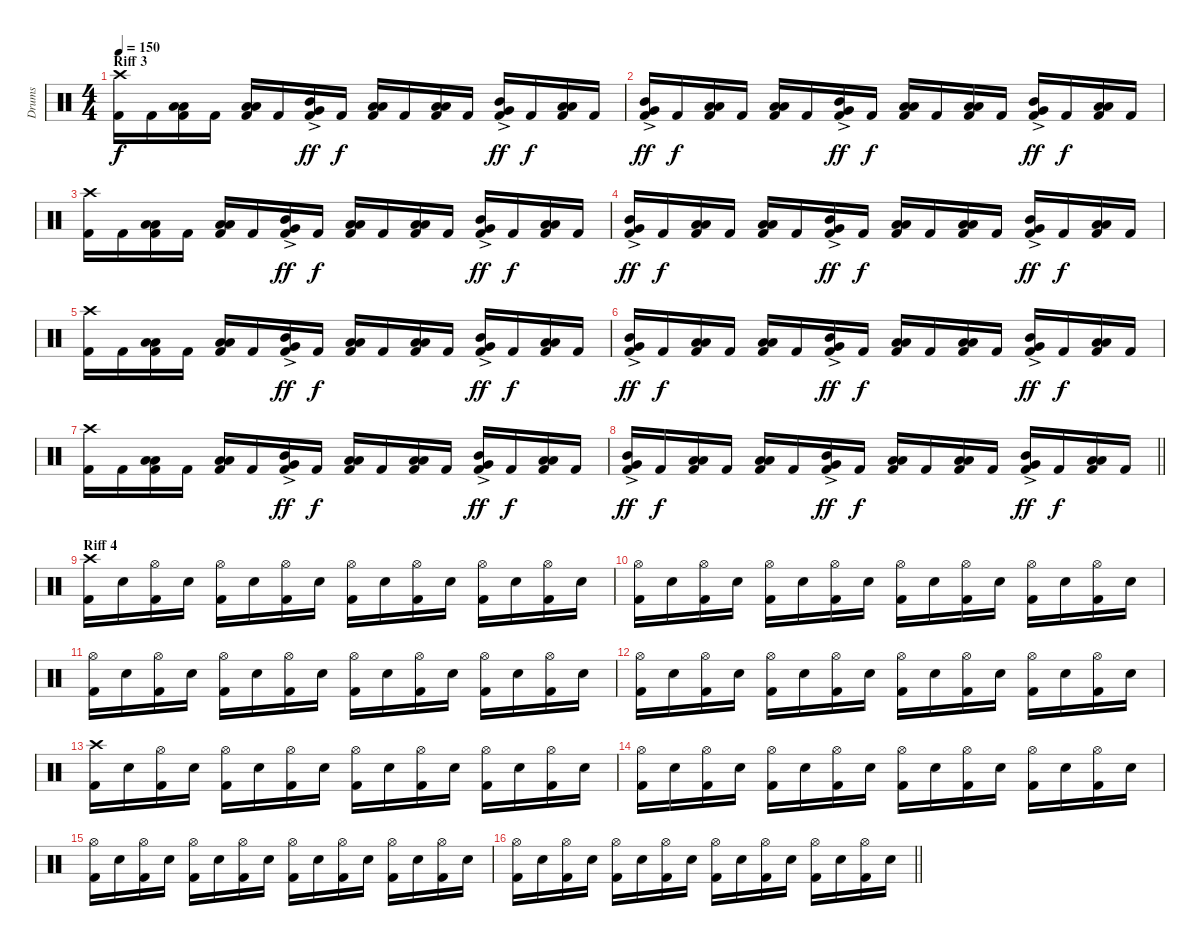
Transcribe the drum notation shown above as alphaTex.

\track ("Drums" "Drums") {instrument percussion}
\staff {score}
\articulation defaults
\ts (4 4)
\section ("" "Riff 3")
\tempo 150
\clef neutral
\ks c
("Crash high (hit)" "Kick (hit) 2").16{dy f} "Kick (hit) 2".16 ("Low Tom (hit)" "Low Floor Tom (hit)" "Kick (hit) 2").16 "Kick (hit) 2".16 ("Low Tom (hit)" "Low Floor Tom (hit)" "Kick (hit) 2").16 "Kick (hit) 2".16 ("Mid Tom (hit)"{ac} "Very Low Tom (hit)"{ac} "Kick (hit) 2").16{dy ff} "Kick (hit) 2".16{dy f} ("Low Tom (hit)" "Low Floor Tom (hit)" "Kick (hit) 2").16 "Kick (hit) 2".16 ("Low Tom (hit)" "Low Floor Tom (hit)" "Kick (hit) 2").16 "Kick (hit) 2".16 ("Mid Tom (hit)"{ac} "Very Low Tom (hit)"{ac} "Kick (hit) 2").16{dy ff} "Kick (hit) 2".16{dy f} ("Low Tom (hit)" "Low Floor Tom (hit)" "Kick (hit) 2").16 "Kick (hit) 2".16 |
("Mid Tom (hit)"{ac} "Very Low Tom (hit)"{ac} "Kick (hit) 2").16{dy ff} "Kick (hit) 2".16{dy f} ("Low Tom (hit)" "Low Floor Tom (hit)" "Kick (hit) 2").16 "Kick (hit) 2".16 ("Low Tom (hit)" "Low Floor Tom (hit)" "Kick (hit) 2").16 "Kick (hit) 2".16 ("Mid Tom (hit)"{ac} "Very Low Tom (hit)"{ac} "Kick (hit) 2").16{dy ff} "Kick (hit) 2".16{dy f} ("Low Tom (hit)" "Low Floor Tom (hit)" "Kick (hit) 2").16 "Kick (hit) 2".16 ("Low Tom (hit)" "Low Floor Tom (hit)" "Kick (hit) 2").16 "Kick (hit) 2".16 ("Mid Tom (hit)"{ac} "Very Low Tom (hit)"{ac} "Kick (hit) 2").16{dy ff} "Kick (hit) 2".16{dy f} ("Low Tom (hit)" "Low Floor Tom (hit)" "Kick (hit) 2").16 "Kick (hit) 2".16 |
("Crash high (hit)" "Kick (hit) 2").16 "Kick (hit) 2".16 ("Low Tom (hit)" "Low Floor Tom (hit)" "Kick (hit) 2").16 "Kick (hit) 2".16 ("Low Tom (hit)" "Low Floor Tom (hit)" "Kick (hit) 2").16 "Kick (hit) 2".16 ("Mid Tom (hit)"{ac} "Very Low Tom (hit)"{ac} "Kick (hit) 2").16{dy ff} "Kick (hit) 2".16{dy f} ("Low Tom (hit)" "Low Floor Tom (hit)" "Kick (hit) 2").16 "Kick (hit) 2".16 ("Low Tom (hit)" "Low Floor Tom (hit)" "Kick (hit) 2").16 "Kick (hit) 2".16 ("Mid Tom (hit)"{ac} "Very Low Tom (hit)"{ac} "Kick (hit) 2").16{dy ff} "Kick (hit) 2".16{dy f} ("Low Tom (hit)" "Low Floor Tom (hit)" "Kick (hit) 2").16 "Kick (hit) 2".16 |
("Mid Tom (hit)"{ac} "Very Low Tom (hit)"{ac} "Kick (hit) 2").16{dy ff} "Kick (hit) 2".16{dy f} ("Low Tom (hit)" "Low Floor Tom (hit)" "Kick (hit) 2").16 "Kick (hit) 2".16 ("Low Tom (hit)" "Low Floor Tom (hit)" "Kick (hit) 2").16 "Kick (hit) 2".16 ("Mid Tom (hit)"{ac} "Very Low Tom (hit)"{ac} "Kick (hit) 2").16{dy ff} "Kick (hit) 2".16{dy f} ("Low Tom (hit)" "Low Floor Tom (hit)" "Kick (hit) 2").16 "Kick (hit) 2".16 ("Low Tom (hit)" "Low Floor Tom (hit)" "Kick (hit) 2").16 "Kick (hit) 2".16 ("Mid Tom (hit)"{ac} "Very Low Tom (hit)"{ac} "Kick (hit) 2").16{dy ff} "Kick (hit) 2".16{dy f} ("Low Tom (hit)" "Low Floor Tom (hit)" "Kick (hit) 2").16 "Kick (hit) 2".16 |
("Crash high (hit)" "Kick (hit) 2").16 "Kick (hit) 2".16 ("Low Tom (hit)" "Low Floor Tom (hit)" "Kick (hit) 2").16 "Kick (hit) 2".16 ("Low Tom (hit)" "Low Floor Tom (hit)" "Kick (hit) 2").16 "Kick (hit) 2".16 ("Mid Tom (hit)"{ac} "Very Low Tom (hit)"{ac} "Kick (hit) 2").16{dy ff} "Kick (hit) 2".16{dy f} ("Low Tom (hit)" "Low Floor Tom (hit)" "Kick (hit) 2").16 "Kick (hit) 2".16 ("Low Tom (hit)" "Low Floor Tom (hit)" "Kick (hit) 2").16 "Kick (hit) 2".16 ("Mid Tom (hit)"{ac} "Very Low Tom (hit)"{ac} "Kick (hit) 2").16{dy ff} "Kick (hit) 2".16{dy f} ("Low Tom (hit)" "Low Floor Tom (hit)" "Kick (hit) 2").16 "Kick (hit) 2".16 |
("Mid Tom (hit)"{ac} "Very Low Tom (hit)"{ac} "Kick (hit) 2").16{dy ff} "Kick (hit) 2".16{dy f} ("Low Tom (hit)" "Low Floor Tom (hit)" "Kick (hit) 2").16 "Kick (hit) 2".16 ("Low Tom (hit)" "Low Floor Tom (hit)" "Kick (hit) 2").16 "Kick (hit) 2".16 ("Mid Tom (hit)"{ac} "Very Low Tom (hit)"{ac} "Kick (hit) 2").16{dy ff} "Kick (hit) 2".16{dy f} ("Low Tom (hit)" "Low Floor Tom (hit)" "Kick (hit) 2").16 "Kick (hit) 2".16 ("Low Tom (hit)" "Low Floor Tom (hit)" "Kick (hit) 2").16 "Kick (hit) 2".16 ("Mid Tom (hit)"{ac} "Very Low Tom (hit)"{ac} "Kick (hit) 2").16{dy ff} "Kick (hit) 2".16{dy f} ("Low Tom (hit)" "Low Floor Tom (hit)" "Kick (hit) 2").16 "Kick (hit) 2".16 |
("Crash high (hit)" "Kick (hit) 2").16 "Kick (hit) 2".16 ("Low Tom (hit)" "Low Floor Tom (hit)" "Kick (hit) 2").16 "Kick (hit) 2".16 ("Low Tom (hit)" "Low Floor Tom (hit)" "Kick (hit) 2").16 "Kick (hit) 2".16 ("Mid Tom (hit)"{ac} "Very Low Tom (hit)"{ac} "Kick (hit) 2").16{dy ff} "Kick (hit) 2".16{dy f} ("Low Tom (hit)" "Low Floor Tom (hit)" "Kick (hit) 2").16 "Kick (hit) 2".16 ("Low Tom (hit)" "Low Floor Tom (hit)" "Kick (hit) 2").16 "Kick (hit) 2".16 ("Mid Tom (hit)"{ac} "Very Low Tom (hit)"{ac} "Kick (hit) 2").16{dy ff} "Kick (hit) 2".16{dy f} ("Low Tom (hit)" "Low Floor Tom (hit)" "Kick (hit) 2").16 "Kick (hit) 2".16 |
\barLineRight lightlight
("Mid Tom (hit)"{ac} "Very Low Tom (hit)"{ac} "Kick (hit) 2").16{dy ff} "Kick (hit) 2".16{dy f} ("Low Tom (hit)" "Low Floor Tom (hit)" "Kick (hit) 2").16 "Kick (hit) 2".16 ("Low Tom (hit)" "Low Floor Tom (hit)" "Kick (hit) 2").16 "Kick (hit) 2".16 ("Mid Tom (hit)"{ac} "Very Low Tom (hit)"{ac} "Kick (hit) 2").16{dy ff} "Kick (hit) 2".16{dy f} ("Low Tom (hit)" "Low Floor Tom (hit)" "Kick (hit) 2").16 "Kick (hit) 2".16 ("Low Tom (hit)" "Low Floor Tom (hit)" "Kick (hit) 2").16 "Kick (hit) 2".16 ("Mid Tom (hit)"{ac} "Very Low Tom (hit)"{ac} "Kick (hit) 2").16{dy ff} "Kick (hit) 2".16{dy f} ("Low Tom (hit)" "Low Floor Tom (hit)" "Kick (hit) 2").16 "Kick (hit) 2".16 |
\section ("" "Riff 4")
("Crash high (hit)" "Kick (hit) 2").16 "Electric Snare (hit)".16 ("Hi-Hat (open)" "Kick (hit) 2").16 "Electric Snare (hit)".16 ("Hi-Hat (open)" "Kick (hit) 2").16 "Electric Snare (hit)".16 ("Hi-Hat (open)" "Kick (hit) 2").16 "Electric Snare (hit)".16 ("Hi-Hat (open)" "Kick (hit) 2").16 "Electric Snare (hit)".16 ("Hi-Hat (open)" "Kick (hit) 2").16 "Electric Snare (hit)".16 ("Hi-Hat (open)" "Kick (hit) 2").16 "Electric Snare (hit)".16 ("Hi-Hat (open)" "Kick (hit) 2").16 "Electric Snare (hit)".16 |
("Hi-Hat (open)" "Kick (hit) 2").16 "Electric Snare (hit)".16 ("Hi-Hat (open)" "Kick (hit) 2").16 "Electric Snare (hit)".16 ("Hi-Hat (open)" "Kick (hit) 2").16 "Electric Snare (hit)".16 ("Hi-Hat (open)" "Kick (hit) 2").16 "Electric Snare (hit)".16 ("Hi-Hat (open)" "Kick (hit) 2").16 "Electric Snare (hit)".16 ("Hi-Hat (open)" "Kick (hit) 2").16 "Electric Snare (hit)".16 ("Hi-Hat (open)" "Kick (hit) 2").16 "Electric Snare (hit)".16 ("Hi-Hat (open)" "Kick (hit) 2").16 "Electric Snare (hit)".16 |
("Hi-Hat (open)" "Kick (hit) 2").16 "Electric Snare (hit)".16 ("Hi-Hat (open)" "Kick (hit) 2").16 "Electric Snare (hit)".16 ("Hi-Hat (open)" "Kick (hit) 2").16 "Electric Snare (hit)".16 ("Hi-Hat (open)" "Kick (hit) 2").16 "Electric Snare (hit)".16 ("Hi-Hat (open)" "Kick (hit) 2").16 "Electric Snare (hit)".16 ("Hi-Hat (open)" "Kick (hit) 2").16 "Electric Snare (hit)".16 ("Hi-Hat (open)" "Kick (hit) 2").16 "Electric Snare (hit)".16 ("Hi-Hat (open)" "Kick (hit) 2").16 "Electric Snare (hit)".16 |
("Hi-Hat (open)" "Kick (hit) 2").16 "Electric Snare (hit)".16 ("Hi-Hat (open)" "Kick (hit) 2").16 "Electric Snare (hit)".16 ("Hi-Hat (open)" "Kick (hit) 2").16 "Electric Snare (hit)".16 ("Hi-Hat (open)" "Kick (hit) 2").16 "Electric Snare (hit)".16 ("Hi-Hat (open)" "Kick (hit) 2").16 "Electric Snare (hit)".16 ("Hi-Hat (open)" "Kick (hit) 2").16 "Electric Snare (hit)".16 ("Hi-Hat (open)" "Kick (hit) 2").16 "Electric Snare (hit)".16 ("Hi-Hat (open)" "Kick (hit) 2").16 "Electric Snare (hit)".16 |
("Crash high (hit)" "Kick (hit) 2").16 "Electric Snare (hit)".16 ("Hi-Hat (open)" "Kick (hit) 2").16 "Electric Snare (hit)".16 ("Hi-Hat (open)" "Kick (hit) 2").16 "Electric Snare (hit)".16 ("Hi-Hat (open)" "Kick (hit) 2").16 "Electric Snare (hit)".16 ("Hi-Hat (open)" "Kick (hit) 2").16 "Electric Snare (hit)".16 ("Hi-Hat (open)" "Kick (hit) 2").16 "Electric Snare (hit)".16 ("Hi-Hat (open)" "Kick (hit) 2").16 "Electric Snare (hit)".16 ("Hi-Hat (open)" "Kick (hit) 2").16 "Electric Snare (hit)".16 |
("Hi-Hat (open)" "Kick (hit) 2").16 "Electric Snare (hit)".16 ("Hi-Hat (open)" "Kick (hit) 2").16 "Electric Snare (hit)".16 ("Hi-Hat (open)" "Kick (hit) 2").16 "Electric Snare (hit)".16 ("Hi-Hat (open)" "Kick (hit) 2").16 "Electric Snare (hit)".16 ("Hi-Hat (open)" "Kick (hit) 2").16 "Electric Snare (hit)".16 ("Hi-Hat (open)" "Kick (hit) 2").16 "Electric Snare (hit)".16 ("Hi-Hat (open)" "Kick (hit) 2").16 "Electric Snare (hit)".16 ("Hi-Hat (open)" "Kick (hit) 2").16 "Electric Snare (hit)".16 |
("Hi-Hat (open)" "Kick (hit) 2").16 "Electric Snare (hit)".16 ("Hi-Hat (open)" "Kick (hit) 2").16 "Electric Snare (hit)".16 ("Hi-Hat (open)" "Kick (hit) 2").16 "Electric Snare (hit)".16 ("Hi-Hat (open)" "Kick (hit) 2").16 "Electric Snare (hit)".16 ("Hi-Hat (open)" "Kick (hit) 2").16 "Electric Snare (hit)".16 ("Hi-Hat (open)" "Kick (hit) 2").16 "Electric Snare (hit)".16 ("Hi-Hat (open)" "Kick (hit) 2").16 "Electric Snare (hit)".16 ("Hi-Hat (open)" "Kick (hit) 2").16 "Electric Snare (hit)".16 |
\barLineRight lightlight
("Hi-Hat (open)" "Kick (hit) 2").16 "Electric Snare (hit)".16 ("Hi-Hat (open)" "Kick (hit) 2").16 "Electric Snare (hit)".16 ("Hi-Hat (open)" "Kick (hit) 2").16 "Electric Snare (hit)".16 ("Hi-Hat (open)" "Kick (hit) 2").16 "Electric Snare (hit)".16 ("Hi-Hat (open)" "Kick (hit) 2").16 "Electric Snare (hit)".16 ("Hi-Hat (open)" "Kick (hit) 2").16 "Electric Snare (hit)".16 ("Hi-Hat (open)" "Kick (hit) 2").16 "Electric Snare (hit)".16 ("Hi-Hat (open)" "Kick (hit) 2").16 "Electric Snare (hit)".16
